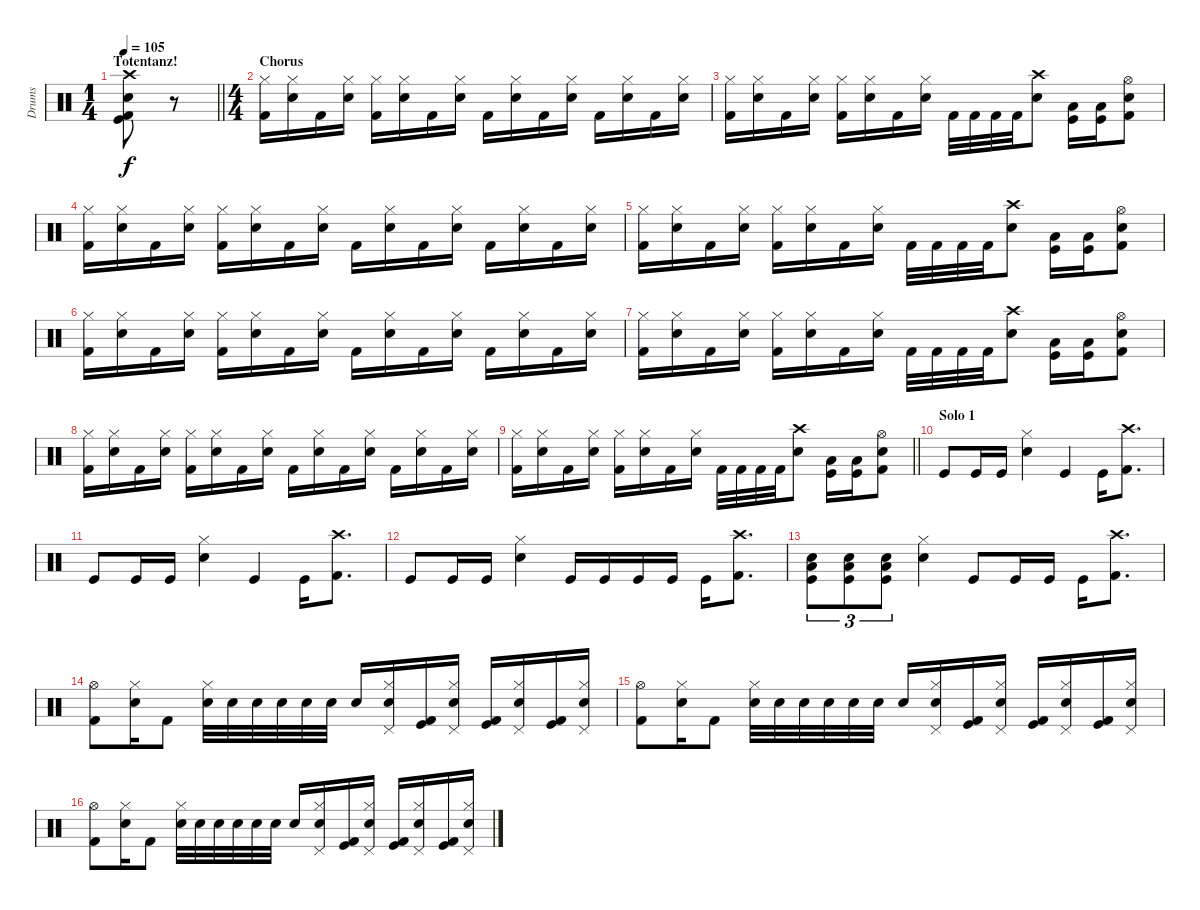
\track ("Drums" "Drums") {instrument percussion}
\staff {score}
\articulation defaults
\ts (1 4)
\section ("" "Totentanz!")
\tempo 105
\clef neutral
\barLineRight lightlight
\ks c
("Crash high (hit)" "Snare (hit) 2" "Kick (hit) 2" "Kick (hit)").8{dy f} r.8 |
\ts (4 4)
\section ("" "Chorus")
("Hi-Hat (closed)" "Kick (hit) 2").16 ("Hi-Hat (closed)" "Snare (hit) 2").16 "Kick (hit) 2".16 ("Hi-Hat (closed)" "Snare (hit) 2").16 ("Hi-Hat (closed)" "Kick (hit) 2").16 ("Hi-Hat (closed)" "Snare (hit) 2").16 "Kick (hit) 2".16 ("Hi-Hat (closed)" "Snare (hit) 2").16 "Kick (hit) 2".16 ("Hi-Hat (closed)" "Snare (hit) 2").16 "Kick (hit) 2".16 ("Hi-Hat (closed)" "Snare (hit) 2").16 "Kick (hit) 2".16 ("Hi-Hat (closed)" "Snare (hit) 2").16 "Kick (hit) 2".16 ("Hi-Hat (closed)" "Snare (hit) 2").16 |
("Hi-Hat (closed)" "Kick (hit) 2").16 ("Hi-Hat (closed)" "Snare (hit) 2").16 "Kick (hit) 2".16 ("Hi-Hat (closed)" "Snare (hit) 2").16 ("Hi-Hat (closed)" "Kick (hit) 2").16 ("Hi-Hat (closed)" "Snare (hit) 2").16 "Kick (hit) 2".16 ("Hi-Hat (closed)" "Snare (hit) 2").16 "Kick (hit) 2".32 "Kick (hit) 2".32 "Kick (hit) 2".32 "Kick (hit) 2".32 ("Snare (hit) 2" "Crash high (hit)").8 ("Kick (hit)" "Low Floor Tom (hit)").16 ("Kick (hit)" "Low Floor Tom (hit)").16 ("Hi-Hat (open)" "Snare (hit) 2" "Kick (hit) 2").8 |
("Hi-Hat (closed)" "Kick (hit) 2").16 ("Hi-Hat (closed)" "Snare (hit) 2").16 "Kick (hit) 2".16 ("Hi-Hat (closed)" "Snare (hit) 2").16 ("Hi-Hat (closed)" "Kick (hit) 2").16 ("Hi-Hat (closed)" "Snare (hit) 2").16 "Kick (hit) 2".16 ("Hi-Hat (closed)" "Snare (hit) 2").16 "Kick (hit) 2".16 ("Hi-Hat (closed)" "Snare (hit) 2").16 "Kick (hit) 2".16 ("Hi-Hat (closed)" "Snare (hit) 2").16 "Kick (hit) 2".16 ("Hi-Hat (closed)" "Snare (hit) 2").16 "Kick (hit) 2".16 ("Hi-Hat (closed)" "Snare (hit) 2").16 |
("Hi-Hat (closed)" "Kick (hit) 2").16 ("Hi-Hat (closed)" "Snare (hit) 2").16 "Kick (hit) 2".16 ("Hi-Hat (closed)" "Snare (hit) 2").16 ("Hi-Hat (closed)" "Kick (hit) 2").16 ("Hi-Hat (closed)" "Snare (hit) 2").16 "Kick (hit) 2".16 ("Hi-Hat (closed)" "Snare (hit) 2").16 "Kick (hit) 2".32 "Kick (hit) 2".32 "Kick (hit) 2".32 "Kick (hit) 2".32 ("Snare (hit) 2" "Crash high (hit)").8 ("Kick (hit)" "Low Floor Tom (hit)").16 ("Kick (hit)" "Low Floor Tom (hit)").16 ("Hi-Hat (open)" "Snare (hit) 2" "Kick (hit) 2").8 |
("Hi-Hat (closed)" "Kick (hit) 2").16 ("Hi-Hat (closed)" "Snare (hit) 2").16 "Kick (hit) 2".16 ("Hi-Hat (closed)" "Snare (hit) 2").16 ("Hi-Hat (closed)" "Kick (hit) 2").16 ("Hi-Hat (closed)" "Snare (hit) 2").16 "Kick (hit) 2".16 ("Hi-Hat (closed)" "Snare (hit) 2").16 "Kick (hit) 2".16 ("Hi-Hat (closed)" "Snare (hit) 2").16 "Kick (hit) 2".16 ("Hi-Hat (closed)" "Snare (hit) 2").16 "Kick (hit) 2".16 ("Hi-Hat (closed)" "Snare (hit) 2").16 "Kick (hit) 2".16 ("Hi-Hat (closed)" "Snare (hit) 2").16 |
("Hi-Hat (closed)" "Kick (hit) 2").16 ("Hi-Hat (closed)" "Snare (hit) 2").16 "Kick (hit) 2".16 ("Hi-Hat (closed)" "Snare (hit) 2").16 ("Hi-Hat (closed)" "Kick (hit) 2").16 ("Hi-Hat (closed)" "Snare (hit) 2").16 "Kick (hit) 2".16 ("Hi-Hat (closed)" "Snare (hit) 2").16 "Kick (hit) 2".32 "Kick (hit) 2".32 "Kick (hit) 2".32 "Kick (hit) 2".32 ("Snare (hit) 2" "Crash high (hit)").8 ("Kick (hit)" "Low Floor Tom (hit)").16 ("Kick (hit)" "Low Floor Tom (hit)").16 ("Hi-Hat (open)" "Snare (hit) 2" "Kick (hit) 2").8 |
("Hi-Hat (closed)" "Kick (hit) 2").16 ("Hi-Hat (closed)" "Snare (hit) 2").16 "Kick (hit) 2".16 ("Hi-Hat (closed)" "Snare (hit) 2").16 ("Hi-Hat (closed)" "Kick (hit) 2").16 ("Hi-Hat (closed)" "Snare (hit) 2").16 "Kick (hit) 2".16 ("Hi-Hat (closed)" "Snare (hit) 2").16 "Kick (hit) 2".16 ("Hi-Hat (closed)" "Snare (hit) 2").16 "Kick (hit) 2".16 ("Hi-Hat (closed)" "Snare (hit) 2").16 "Kick (hit) 2".16 ("Hi-Hat (closed)" "Snare (hit) 2").16 "Kick (hit) 2".16 ("Hi-Hat (closed)" "Snare (hit) 2").16 |
\barLineRight lightlight
("Hi-Hat (closed)" "Kick (hit) 2").16 ("Hi-Hat (closed)" "Snare (hit) 2").16 "Kick (hit) 2".16 ("Hi-Hat (closed)" "Snare (hit) 2").16 ("Hi-Hat (closed)" "Kick (hit) 2").16 ("Hi-Hat (closed)" "Snare (hit) 2").16 "Kick (hit) 2".16 ("Hi-Hat (closed)" "Snare (hit) 2").16 "Kick (hit) 2".32 "Kick (hit) 2".32 "Kick (hit) 2".32 "Kick (hit) 2".32 ("Snare (hit) 2" "Crash high (hit)").8 ("Kick (hit)" "Low Floor Tom (hit)").16 ("Kick (hit)" "Low Floor Tom (hit)").16 ("Hi-Hat (open)" "Snare (hit) 2" "Kick (hit) 2").8 |
\section ("" "Solo 1")
"Kick (hit)".8 "Kick (hit)".16 "Kick (hit)".16 ("Hi-Hat (closed)" "Snare (hit) 2").4 "Kick (hit)".4 "Kick (hit)".16 ("Crash high (hit)" "Kick (hit) 2").8{d} |
"Kick (hit)".8 "Kick (hit)".16 "Kick (hit)".16 ("Hi-Hat (closed)" "Snare (hit) 2").4 "Kick (hit)".4 "Kick (hit)".16 ("Crash high (hit)" "Kick (hit) 2").8{d} |
"Kick (hit)".8 "Kick (hit)".16 "Kick (hit)".16 ("Hi-Hat (closed)" "Snare (hit) 2").4 "Kick (hit)".16 "Kick (hit)".16 "Kick (hit)".16 "Kick (hit)".16 "Kick (hit)".16 ("Crash high (hit)" "Kick (hit) 2").8{d} |
("Snare (hit) 2" "Low Floor Tom (hit)" "Kick (hit)").8{tu (3 2)} ("Snare (hit) 2" "Low Floor Tom (hit)" "Kick (hit)").8{tu (3 2)} ("Snare (hit) 2" "Low Floor Tom (hit)" "Kick (hit)").8{tu (3 2)} ("Hi-Hat (closed)" "Snare (hit) 2").4 "Kick (hit)".8 "Kick (hit)".16 "Kick (hit)".16 "Kick (hit)".16 ("Crash high (hit)" "Kick (hit) 2").8{d} |
("Hi-Hat (open)" "Kick (hit) 2").8 ("Snare (hit) 2" "Hi-Hat (closed)").16 "Kick (hit) 2".8 ("Hi-Hat (closed)" "Snare (hit) 2").32 "Snare (hit) 2".32 "Snare (hit) 2".32 "Snare (hit) 2".32 "Snare (hit) 2".32 "Snare (hit) 2".32 "Snare (hit) 2".16 ("Pedal Hi-Hat (hit)" "Snare (hit) 2" "Hi-Hat (closed)").16 ("Kick (hit) 2" "Kick (hit)").16 ("Pedal Hi-Hat (hit)" "Snare (hit) 2" "Hi-Hat (closed)").16 ("Kick (hit) 2" "Kick (hit)").16 ("Pedal Hi-Hat (hit)" "Snare (hit) 2" "Hi-Hat (closed)").16 ("Kick (hit) 2" "Kick (hit)").16 ("Pedal Hi-Hat (hit)" "Snare (hit) 2" "Hi-Hat (closed)").16 |
("Hi-Hat (open)" "Kick (hit) 2").8 ("Snare (hit) 2" "Hi-Hat (closed)").16 "Kick (hit) 2".8 ("Hi-Hat (closed)" "Snare (hit) 2").32 "Snare (hit) 2".32 "Snare (hit) 2".32 "Snare (hit) 2".32 "Snare (hit) 2".32 "Snare (hit) 2".32 "Snare (hit) 2".16 ("Pedal Hi-Hat (hit)" "Snare (hit) 2" "Hi-Hat (closed)").16 ("Kick (hit) 2" "Kick (hit)").16 ("Pedal Hi-Hat (hit)" "Snare (hit) 2" "Hi-Hat (closed)").16 ("Kick (hit) 2" "Kick (hit)").16 ("Pedal Hi-Hat (hit)" "Snare (hit) 2" "Hi-Hat (closed)").16 ("Kick (hit) 2" "Kick (hit)").16 ("Pedal Hi-Hat (hit)" "Snare (hit) 2" "Hi-Hat (closed)").16 |
("Hi-Hat (open)" "Kick (hit) 2").8 ("Snare (hit) 2" "Hi-Hat (closed)").16 "Kick (hit) 2".8 ("Hi-Hat (closed)" "Snare (hit) 2").32 "Snare (hit) 2".32 "Snare (hit) 2".32 "Snare (hit) 2".32 "Snare (hit) 2".32 "Snare (hit) 2".32 "Snare (hit) 2".16 ("Pedal Hi-Hat (hit)" "Snare (hit) 2" "Hi-Hat (closed)").16 ("Kick (hit) 2" "Kick (hit)").16 ("Pedal Hi-Hat (hit)" "Snare (hit) 2" "Hi-Hat (closed)").16 ("Kick (hit) 2" "Kick (hit)").16 ("Pedal Hi-Hat (hit)" "Snare (hit) 2" "Hi-Hat (closed)").16 ("Kick (hit) 2" "Kick (hit)").16 ("Pedal Hi-Hat (hit)" "Snare (hit) 2" "Hi-Hat (closed)").16
